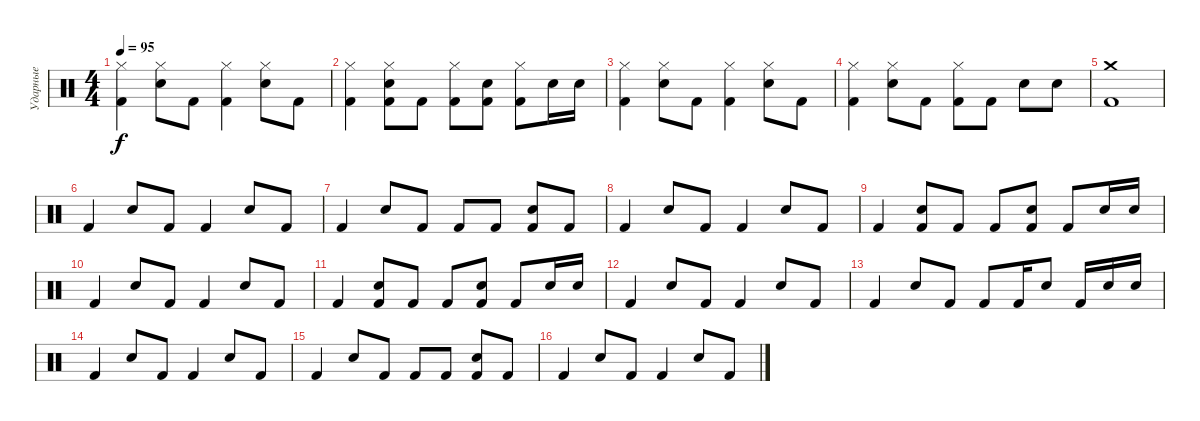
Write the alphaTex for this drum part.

\track ("Ударные" "Ударные") {instrument percussion}
\staff {score}
\articulation defaults
\ts (4 4)
\tempo 95
\clef neutral
\ks c
("Hi-Hat (closed)" "Kick (hit) 2").4{dy f} ("Hi-Hat (closed)" "Snare (hit) 2").8 "Kick (hit) 2".8 ("Hi-Hat (closed)" "Kick (hit) 2").4 ("Hi-Hat (closed)" "Snare (hit) 2").8 "Kick (hit) 2".8 |
("Hi-Hat (closed)" "Kick (hit) 2").4 ("Hi-Hat (closed)" "Snare (hit) 2" "Kick (hit) 2").8 "Kick (hit) 2".8 ("Hi-Hat (closed)" "Kick (hit) 2").8 ("Snare (hit) 2" "Kick (hit) 2").8 ("Hi-Hat (closed)" "Kick (hit) 2").8 "Snare (hit) 2".16 "Snare (hit) 2".16 |
("Hi-Hat (closed)" "Kick (hit) 2").4 ("Hi-Hat (closed)" "Snare (hit) 2").8 "Kick (hit) 2".8 ("Hi-Hat (closed)" "Kick (hit) 2").4 ("Hi-Hat (closed)" "Snare (hit) 2").8 "Kick (hit) 2".8 |
("Hi-Hat (closed)" "Kick (hit) 2").4 ("Hi-Hat (closed)" "Snare (hit) 2").8 "Kick (hit) 2".8 ("Hi-Hat (closed)" "Kick (hit) 2").8 "Kick (hit) 2".8 "Snare (hit) 2".8 "Snare (hit) 2".8 |
("Crash medium (hit)" "Kick (hit) 2").1 |
"Kick (hit) 2".4 "Snare (hit) 2".8 "Kick (hit) 2".8 "Kick (hit) 2".4 "Snare (hit) 2".8 "Kick (hit) 2".8 |
"Kick (hit) 2".4 "Snare (hit) 2".8 "Kick (hit) 2".8 "Kick (hit) 2".8 "Kick (hit) 2".8 ("Snare (hit) 2" "Kick (hit) 2").8 "Kick (hit) 2".8 |
"Kick (hit) 2".4 "Snare (hit) 2".8 "Kick (hit) 2".8 "Kick (hit) 2".4 "Snare (hit) 2".8 "Kick (hit) 2".8 |
"Kick (hit) 2".4 ("Snare (hit) 2" "Kick (hit) 2").8 "Kick (hit) 2".8 "Kick (hit) 2".8 ("Snare (hit) 2" "Kick (hit) 2").8 "Kick (hit) 2".8 "Snare (hit) 2".16 "Snare (hit) 2".16 |
"Kick (hit) 2".4 "Snare (hit) 2".8 "Kick (hit) 2".8 "Kick (hit) 2".4 "Snare (hit) 2".8 "Kick (hit) 2".8 |
"Kick (hit) 2".4 ("Snare (hit) 2" "Kick (hit) 2").8 "Kick (hit) 2".8 "Kick (hit) 2".8 ("Snare (hit) 2" "Kick (hit) 2").8 "Kick (hit) 2".8 "Snare (hit) 2".16 "Snare (hit) 2".16 |
"Kick (hit) 2".4 "Snare (hit) 2".8 "Kick (hit) 2".8 "Kick (hit) 2".4 "Snare (hit) 2".8 "Kick (hit) 2".8 |
"Kick (hit) 2".4 "Snare (hit) 2".8 "Kick (hit) 2".8 "Kick (hit) 2".8 "Kick (hit) 2".16 "Snare (hit) 2".8 "Kick (hit) 2".16 "Snare (hit) 2".16 "Snare (hit) 2".16 |
"Kick (hit) 2".4 "Snare (hit) 2".8 "Kick (hit) 2".8 "Kick (hit) 2".4 "Snare (hit) 2".8 "Kick (hit) 2".8 |
"Kick (hit) 2".4 "Snare (hit) 2".8 "Kick (hit) 2".8 "Kick (hit) 2".8 "Kick (hit) 2".8 ("Snare (hit) 2" "Kick (hit) 2").8 "Kick (hit) 2".8 |
"Kick (hit) 2".4 "Snare (hit) 2".8 "Kick (hit) 2".8 "Kick (hit) 2".4 "Snare (hit) 2".8 "Kick (hit) 2".8
